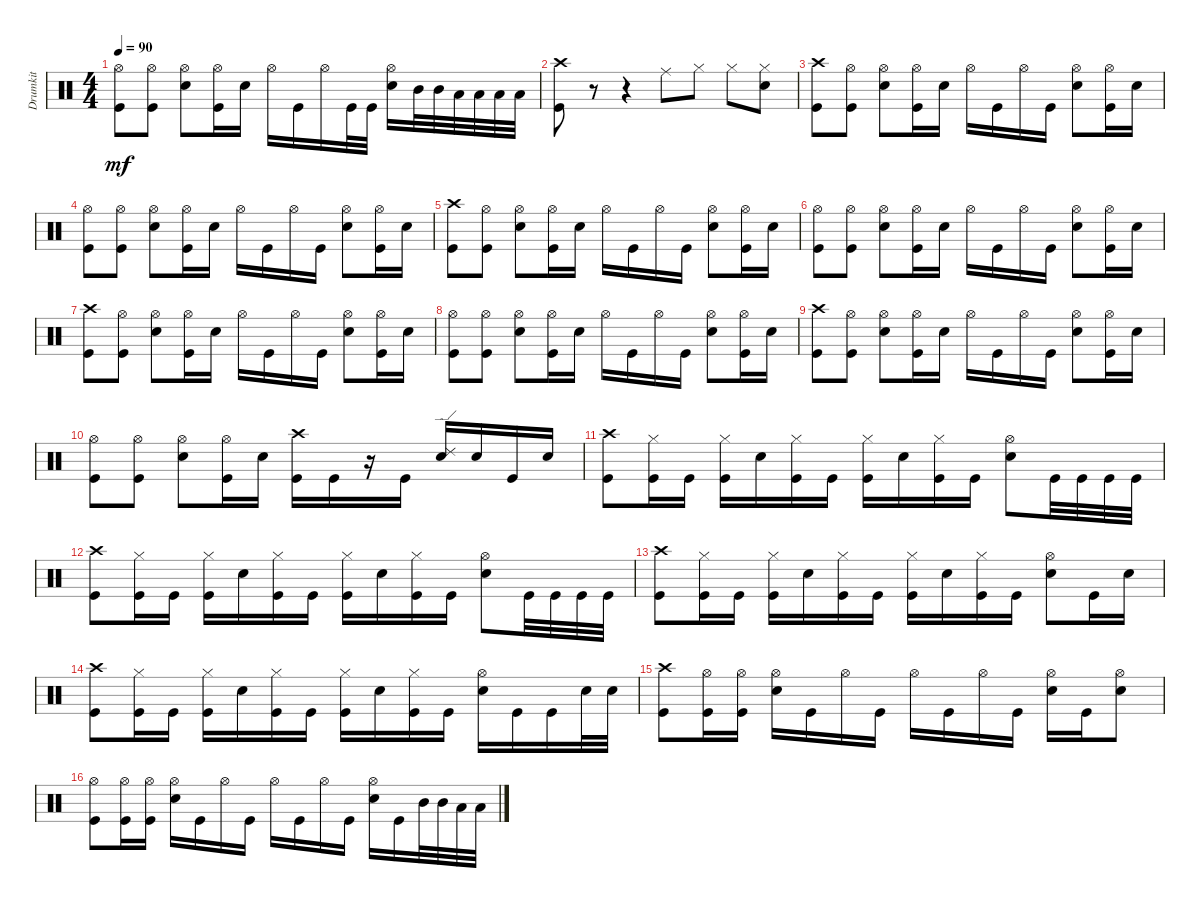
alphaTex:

\track ("Drumkit" "Drumkit") {instrument percussion}
\staff {score}
\articulation defaults
\ts (4 4)
\tempo 90
\clef neutral
\ks c
("Kick (hit)" "Hi-Hat (open)").8{dy mf} ("Kick (hit)" "Hi-Hat (open)").8 ("Snare (hit) 2" "Hi-Hat (open)").8 ("Kick (hit)" "Hi-Hat (open)").16 "Snare (hit) 2".16 "Hi-Hat (open)".16 "Kick (hit)".16 "Hi-Hat (open)".16 "Kick (hit)".32 "Kick (hit)".32 ("Snare (hit) 2" "Hi-Hat (open)").16 "Mid Tom (hit)".32 "Mid Tom (hit)".32 "Low Tom (hit)".32 "Low Tom (hit)".32 "Low Floor Tom (hit)".32 "Low Floor Tom (hit)".32 |
("Kick (hit)" "Crash high (hit)").8 r.8 r.4 "Ride (middle)".8 "Hi-Hat (closed)".8 "Hi-Hat (closed)".8 ("Hi-Hat (closed)" "Snare (hit) 2").8 |
("Kick (hit)" "Crash high (hit)").8 ("Kick (hit)" "Hi-Hat (open)").8 ("Snare (hit) 2" "Hi-Hat (open)").8 ("Kick (hit)" "Hi-Hat (open)").16 "Snare (hit) 2".16 "Hi-Hat (open)".16 "Kick (hit)".16 "Hi-Hat (open)".16 "Kick (hit)".16 ("Snare (hit) 2" "Hi-Hat (open)").8 ("Kick (hit)" "Hi-Hat (open)").16 "Snare (hit) 2".16 |
("Kick (hit)" "Hi-Hat (open)").8 ("Kick (hit)" "Hi-Hat (open)").8 ("Snare (hit) 2" "Hi-Hat (open)").8 ("Kick (hit)" "Hi-Hat (open)").16 "Snare (hit) 2".16 "Hi-Hat (open)".16 "Kick (hit)".16 "Hi-Hat (open)".16 "Kick (hit)".16 ("Snare (hit) 2" "Hi-Hat (open)").8 ("Kick (hit)" "Hi-Hat (open)").16 "Snare (hit) 2".16 |
("Kick (hit)" "Crash high (hit)").8 ("Kick (hit)" "Hi-Hat (open)").8 ("Snare (hit) 2" "Hi-Hat (open)").8 ("Kick (hit)" "Hi-Hat (open)").16 "Snare (hit) 2".16 "Hi-Hat (open)".16 "Kick (hit)".16 "Hi-Hat (open)".16 "Kick (hit)".16 ("Snare (hit) 2" "Hi-Hat (open)").8 ("Kick (hit)" "Hi-Hat (open)").16 "Snare (hit) 2".16 |
("Kick (hit)" "Hi-Hat (open)").8 ("Kick (hit)" "Hi-Hat (open)").8 ("Snare (hit) 2" "Hi-Hat (open)").8 ("Kick (hit)" "Hi-Hat (open)").16 "Snare (hit) 2".16 "Hi-Hat (open)".16 "Kick (hit)".16 "Hi-Hat (open)".16 "Kick (hit)".16 ("Snare (hit) 2" "Hi-Hat (open)").8 ("Kick (hit)" "Hi-Hat (open)").16 "Snare (hit) 2".16 |
("Kick (hit)" "Crash high (hit)").8 ("Kick (hit)" "Hi-Hat (open)").8 ("Snare (hit) 2" "Hi-Hat (open)").8 ("Kick (hit)" "Hi-Hat (open)").16 "Snare (hit) 2".16 "Hi-Hat (open)".16 "Kick (hit)".16 "Hi-Hat (open)".16 "Kick (hit)".16 ("Snare (hit) 2" "Hi-Hat (open)").8 ("Kick (hit)" "Hi-Hat (open)").16 "Snare (hit) 2".16 |
("Kick (hit)" "Hi-Hat (open)").8 ("Kick (hit)" "Hi-Hat (open)").8 ("Snare (hit) 2" "Hi-Hat (open)").8 ("Kick (hit)" "Hi-Hat (open)").16 "Snare (hit) 2".16 "Hi-Hat (open)".16 "Kick (hit)".16 "Hi-Hat (open)".16 "Kick (hit)".16 ("Snare (hit) 2" "Hi-Hat (open)").8 ("Kick (hit)" "Hi-Hat (open)").16 "Snare (hit) 2".16 |
("Kick (hit)" "Crash high (hit)").8 ("Kick (hit)" "Hi-Hat (open)").8 ("Snare (hit) 2" "Hi-Hat (open)").8 ("Kick (hit)" "Hi-Hat (open)").16 "Snare (hit) 2".16 "Hi-Hat (open)".16 "Kick (hit)".16 "Hi-Hat (open)".16 "Kick (hit)".16 ("Snare (hit) 2" "Hi-Hat (open)").8 ("Kick (hit)" "Hi-Hat (open)").16 "Snare (hit) 2".16 |
("Kick (hit)" "Hi-Hat (open)").8 ("Kick (hit)" "Hi-Hat (open)").8 ("Snare (hit) 2" "Hi-Hat (open)").8 ("Kick (hit)" "Hi-Hat (open)").16 "Snare (hit) 2".16 ("Kick (hit)" "Crash high (hit)").16 "Kick (hit)".16 r.16 "Kick (hit)".16 ("Snare (hit) 2" "Ride (edge) 2").16 "Snare (hit) 2".16 "Kick (hit)".16 "Snare (hit) 2".16 |
("Kick (hit)" "Crash high (hit)").8 ("Kick (hit)" "Hi-Hat (closed)").16 "Kick (hit)".16 ("Kick (hit)" "Hi-Hat (closed)").16 "Snare (hit) 2".16 ("Kick (hit)" "Hi-Hat (closed)").16 "Kick (hit)".16 ("Kick (hit)" "Hi-Hat (closed)").16 "Snare (hit) 2".16 ("Kick (hit)" "Hi-Hat (closed)").16 "Kick (hit)".16 ("Snare (hit) 2" "Hi-Hat (open)").8 "Kick (hit)".32 "Kick (hit)".32 "Kick (hit)".32 "Kick (hit)".32 |
("Kick (hit)" "Crash high (hit)").8 ("Kick (hit)" "Hi-Hat (closed)").16 "Kick (hit)".16 ("Kick (hit)" "Hi-Hat (closed)").16 "Snare (hit) 2".16 ("Kick (hit)" "Hi-Hat (closed)").16 "Kick (hit)".16 ("Kick (hit)" "Hi-Hat (closed)").16 "Snare (hit) 2".16 ("Kick (hit)" "Hi-Hat (closed)").16 "Kick (hit)".16 ("Snare (hit) 2" "Hi-Hat (open)").8 "Kick (hit)".32 "Kick (hit)".32 "Kick (hit)".32 "Kick (hit)".32 |
("Kick (hit)" "Crash high (hit)").8 ("Kick (hit)" "Hi-Hat (closed)").16 "Kick (hit)".16 ("Kick (hit)" "Hi-Hat (closed)").16 "Snare (hit) 2".16 ("Kick (hit)" "Hi-Hat (closed)").16 "Kick (hit)".16 ("Kick (hit)" "Hi-Hat (closed)").16 "Snare (hit) 2".16 ("Kick (hit)" "Hi-Hat (closed)").16 "Kick (hit)".16 ("Snare (hit) 2" "Hi-Hat (open)").8 "Kick (hit)".16 "Snare (hit) 2".16 |
("Kick (hit)" "Crash high (hit)").8 ("Kick (hit)" "Hi-Hat (closed)").16 "Kick (hit)".16 ("Kick (hit)" "Hi-Hat (closed)").16 "Snare (hit) 2".16 ("Kick (hit)" "Hi-Hat (closed)").16 "Kick (hit)".16 ("Kick (hit)" "Hi-Hat (closed)").16 "Snare (hit) 2".16 ("Kick (hit)" "Hi-Hat (closed)").16 "Kick (hit)".16 ("Snare (hit) 2" "Hi-Hat (open)").16 "Kick (hit)".16 "Kick (hit)".16 "Snare (hit) 2".32 "Snare (hit) 2".32 |
("Kick (hit)" "Crash high (hit)").8 ("Kick (hit)" "Hi-Hat (open)").16 ("Kick (hit)" "Hi-Hat (open)").16 ("Snare (hit) 2" "Hi-Hat (open)").16 "Kick (hit)".16 "Hi-Hat (open)".16 "Kick (hit)".16 "Hi-Hat (open)".16 "Kick (hit)".16 "Hi-Hat (open)".16 "Kick (hit)".16 ("Snare (hit) 2" "Hi-Hat (open)").16 "Kick (hit)".16 ("Snare (hit) 2" "Hi-Hat (open)").8 |
("Kick (hit)" "Hi-Hat (open)").8 ("Kick (hit)" "Hi-Hat (open)").16 ("Kick (hit)" "Hi-Hat (open)").16 ("Snare (hit) 2" "Hi-Hat (open)").16 "Kick (hit)".16 "Hi-Hat (open)".16 "Kick (hit)".16 "Hi-Hat (open)".16 "Kick (hit)".16 "Hi-Hat (open)".16 "Kick (hit)".16 ("Snare (hit) 2" "Hi-Hat (open)").16 "Kick (hit)".16 "Mid Tom (hit)".32 "Mid Tom (hit)".32 "Low Tom (hit)".32 "Low Tom (hit)".32
